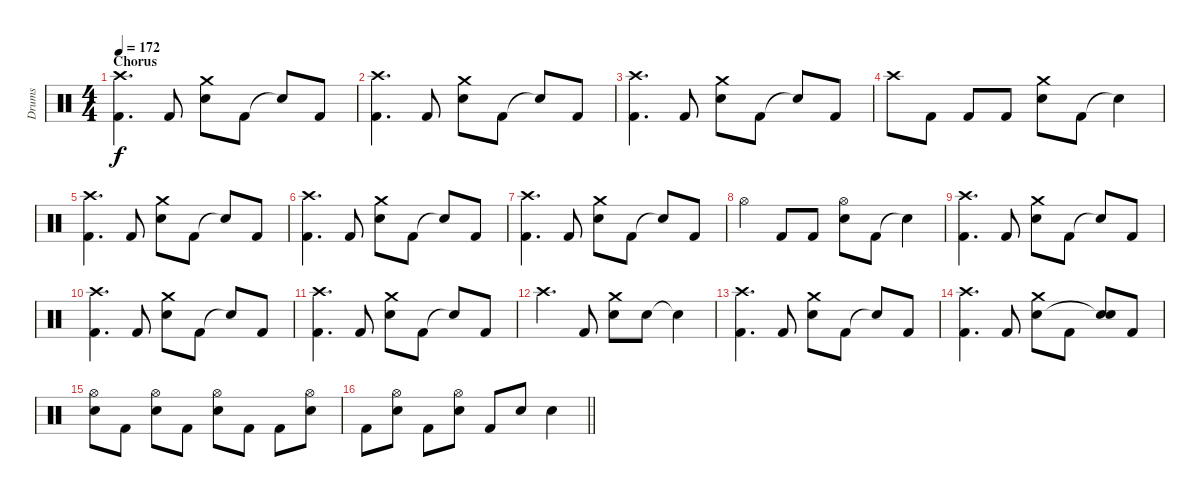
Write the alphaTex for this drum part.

\track ("Drums" "Drums") {instrument percussion}
\staff {score}
\articulation defaults
\ts (4 4)
\section ("" "Chorus")
\tempo 172
\clef neutral
\ks c
("Crash high (hit)" "Kick (hit) 2").4{d dy f} "Kick (hit) 2".8 ("Crash medium (hit)" "Electric Snare (hit)").8 "Kick (hit) 2".8 "Snare (hit)"{t}.8 "Kick (hit) 2".8 |
("Crash high (hit)" "Kick (hit) 2").4{d} "Kick (hit) 2".8 ("Crash medium (hit)" "Electric Snare (hit)").8 "Kick (hit) 2".8 "Snare (hit)"{t}.8 "Kick (hit) 2".8 |
("Crash high (hit)" "Kick (hit) 2").4{d} "Kick (hit) 2".8 ("Crash medium (hit)" "Electric Snare (hit)").8 "Kick (hit) 2".8 "Snare (hit)"{t}.8 "Kick (hit) 2".8 |
"Crash high (hit)".8 "Kick (hit) 2".8 "Kick (hit) 2".8 "Kick (hit) 2".8 ("Crash medium (hit)" "Electric Snare (hit)").8 "Kick (hit) 2".8 "Snare (hit)"{t}.4 |
("Crash high (hit)" "Kick (hit) 2").4{d} "Kick (hit) 2".8 ("Crash medium (hit)" "Electric Snare (hit)").8 "Kick (hit) 2".8 "Snare (hit)"{t}.8 "Kick (hit) 2".8 |
("Crash high (hit)" "Kick (hit) 2").4{d} "Kick (hit) 2".8 ("Crash medium (hit)" "Electric Snare (hit)").8 "Kick (hit) 2".8 "Snare (hit)"{t}.8 "Kick (hit) 2".8 |
("Crash high (hit)" "Kick (hit) 2").4{d} "Kick (hit) 2".8 ("Crash medium (hit)" "Electric Snare (hit)").8 "Kick (hit) 2".8 "Snare (hit)"{t}.8 "Kick (hit) 2".8 |
"Hi-Hat (open)".4 "Kick (hit) 2".8 "Kick (hit) 2".8 ("Hi-Hat (open)" "Electric Snare (hit)").8 "Kick (hit) 2".8 "Snare (hit)"{t}.4 |
("Crash high (hit)" "Kick (hit) 2").4{d} "Kick (hit) 2".8 ("Crash medium (hit)" "Electric Snare (hit)").8 "Kick (hit) 2".8 "Snare (hit)"{t}.8 "Kick (hit) 2".8 |
("Crash high (hit)" "Kick (hit) 2").4{d} "Kick (hit) 2".8 ("Crash medium (hit)" "Electric Snare (hit)").8 "Kick (hit) 2".8 "Snare (hit)"{t}.8 "Kick (hit) 2".8 |
("Crash high (hit)" "Kick (hit) 2").4{d} "Kick (hit) 2".8 ("Crash medium (hit)" "Electric Snare (hit)").8 "Kick (hit) 2".8 "Snare (hit)"{t}.8 "Kick (hit) 2".8 |
"Crash high (hit)".4{d} "Kick (hit) 2".8 ("Crash medium (hit)" "Electric Snare (hit)").8 "Electric Snare (hit)".8 "Snare (hit)"{t}.4 |
("Crash high (hit)" "Kick (hit) 2").4{d} "Kick (hit) 2".8 ("Crash medium (hit)" "Electric Snare (hit)").8 "Kick (hit) 2".8 "Snare (hit)"{t}.8 "Kick (hit) 2".8 |
("Crash high (hit)" "Kick (hit) 2").4{d} "Kick (hit) 2".8 ("Crash medium (hit)" "Electric Snare (hit)").8 "Kick (hit) 2".8 ("Electric Snare (hit)" "Snare (hit)"{t}).8 "Kick (hit) 2".8 |
("Hi-Hat (open)" "Electric Snare (hit)").8 "Kick (hit) 2".8 ("Hi-Hat (open)" "Electric Snare (hit)").8 "Kick (hit) 2".8 ("Hi-Hat (open)" "Electric Snare (hit)").8 "Kick (hit) 2".8 "Kick (hit) 2".8 ("Hi-Hat (open)" "Electric Snare (hit)").8 |
\barLineRight lightlight "Kick (hit) 2".8
("Hi-Hat (open)" "Electric Snare (hit)").8 "Kick (hit) 2".8 ("Hi-Hat (open)" "Electric Snare (hit)").8 "Kick (hit) 2".8 "Electric Snare (hit)".8 "Electric Snare (hit)".4
